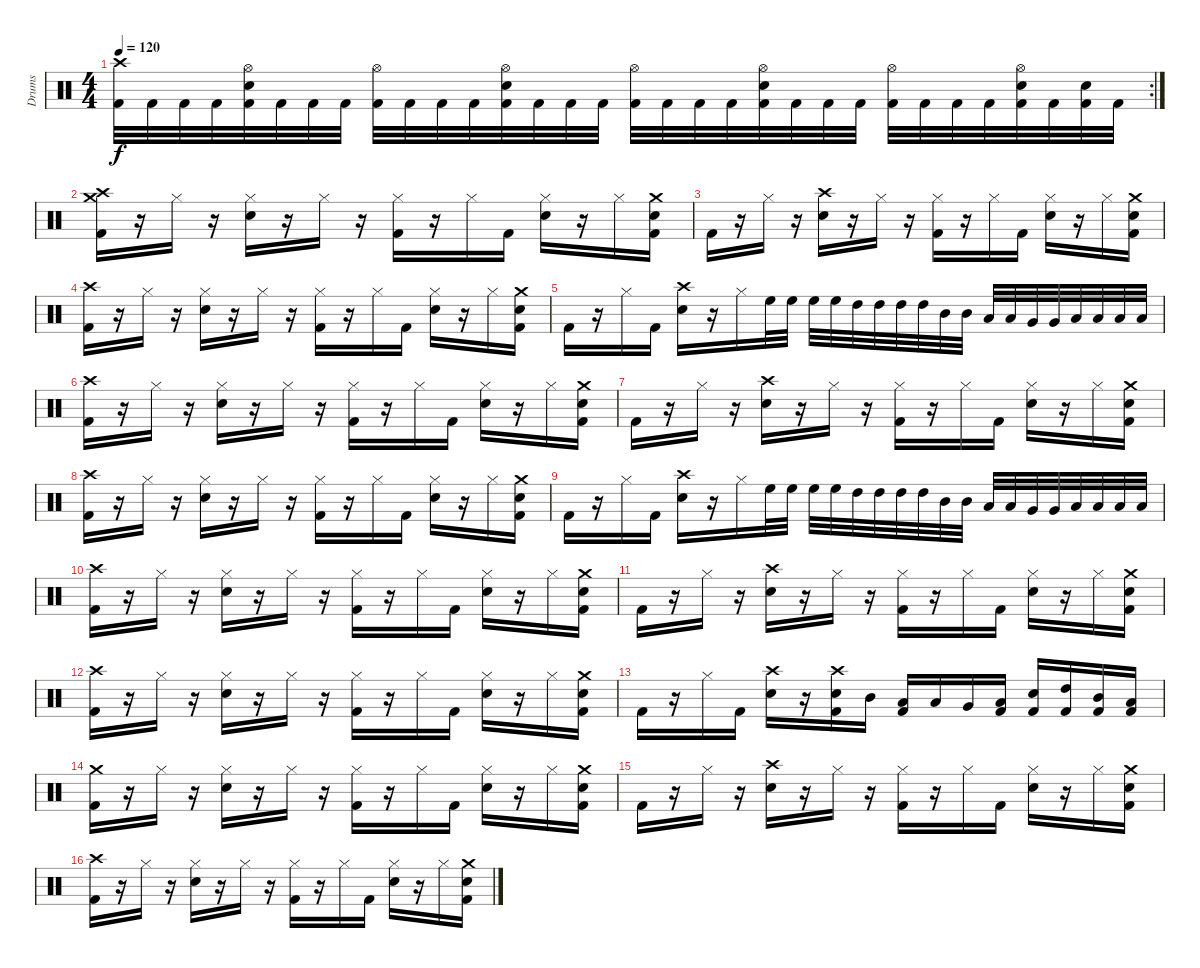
\track ("Drums" "Drums") {instrument percussion}
\staff {score}
\articulation defaults
\rc 2
\ts (4 4)
\tempo 120
\clef neutral
\ks c
("Crash high (hit)" "Kick (hit) 2").32{dy f} "Kick (hit) 2".32 "Kick (hit) 2".32 "Kick (hit) 2".32 ("Hi-Hat (open)" "Snare (hit) 2" "Kick (hit) 2").32 "Kick (hit) 2".32 "Kick (hit) 2".32 "Kick (hit) 2".32 ("Hi-Hat (open)" "Kick (hit) 2").32 "Kick (hit) 2".32 "Kick (hit) 2".32 "Kick (hit) 2".32 ("Hi-Hat (open)" "Snare (hit) 2" "Kick (hit) 2").32 "Kick (hit) 2".32 "Kick (hit) 2".32 "Kick (hit) 2".32 ("Hi-Hat (open)" "Kick (hit) 2").32 "Kick (hit) 2".32 "Kick (hit) 2".32 "Kick (hit) 2".32 ("Hi-Hat (open)" "Snare (hit) 2" "Kick (hit) 2").32 "Kick (hit) 2".32 "Kick (hit) 2".32 "Kick (hit) 2".32 ("Hi-Hat (open)" "Kick (hit) 2").32 "Kick (hit) 2".32 "Kick (hit) 2".32 "Kick (hit) 2".32 ("Hi-Hat (open)" "Snare (hit) 2" "Kick (hit) 2").32 "Kick (hit) 2".32 ("Snare (hit) 2" "Kick (hit) 2").32 "Kick (hit) 2".32 |
("Crash high (hit)" "Crash medium (hit)" "Kick (hit) 2").16 r.16 "Hi-Hat (closed)".16 r.16 ("Hi-Hat (closed)" "Snare (hit) 2").16 r.16 "Hi-Hat (closed)".16 r.16 ("Hi-Hat (closed)" "Kick (hit) 2").16 r.16 "Hi-Hat (closed)".16 "Kick (hit) 2".16 ("Hi-Hat (closed)" "Snare (hit) 2").16 r.16 "Hi-Hat (closed)".16 ("Crash medium (hit)" "Snare (hit) 2" "Kick (hit) 2").16 |
"Kick (hit) 2".16 r.16 "Hi-Hat (closed)".16 r.16 ("Crash high (hit)" "Snare (hit) 2").16 r.16 "Hi-Hat (closed)".16 r.16 ("Hi-Hat (closed)" "Kick (hit) 2").16 r.16 "Hi-Hat (closed)".16 "Kick (hit) 2".16 ("Hi-Hat (closed)" "Snare (hit) 2").16 r.16 "Hi-Hat (closed)".16 ("Crash medium (hit)" "Snare (hit) 2" "Kick (hit) 2").16 |
("Crash high (hit)" "Kick (hit) 2").16 r.16 "Hi-Hat (closed)".16 r.16 ("Hi-Hat (closed)" "Snare (hit) 2").16 r.16 "Hi-Hat (closed)".16 r.16 ("Hi-Hat (closed)" "Kick (hit) 2").16 r.16 "Hi-Hat (closed)".16 "Kick (hit) 2".16 ("Hi-Hat (closed)" "Snare (hit) 2").16 r.16 "Hi-Hat (closed)".16 ("Crash medium (hit)" "Snare (hit) 2" "Kick (hit) 2").16 |
"Kick (hit) 2".16 r.16 "Hi-Hat (closed)".16 "Kick (hit) 2".16 ("Crash high (hit)" "Snare (hit) 2").16 r.16 "Hi-Hat (closed)".16 "High Floor Tom (hit)".32 "High Floor Tom (hit)".32 "High Floor Tom (hit)".32 "High Floor Tom (hit)".32 "High Tom (hit)".32 "High Tom (hit)".32 "High Tom (hit)".32 "High Tom (hit)".32 "Mid Tom (hit)".32 "Mid Tom (hit)".32 "Low Tom (hit)".32 "Low Tom (hit)".32 "Very Low Tom (hit)".32 "Very Low Tom (hit)".32 "Low Floor Tom (hit)".32 "Low Floor Tom (hit)".32 "Low Floor Tom (hit)".32 "Low Floor Tom (hit)".32 |
("Crash high (hit)" "Kick (hit) 2").16 r.16 "Hi-Hat (closed)".16 r.16 ("Hi-Hat (closed)" "Snare (hit) 2").16 r.16 "Hi-Hat (closed)".16 r.16 ("Hi-Hat (closed)" "Kick (hit) 2").16 r.16 "Hi-Hat (closed)".16 "Kick (hit) 2".16 ("Hi-Hat (closed)" "Snare (hit) 2").16 r.16 "Hi-Hat (closed)".16 ("Crash medium (hit)" "Snare (hit) 2" "Kick (hit) 2").16 |
"Kick (hit) 2".16 r.16 "Hi-Hat (closed)".16 r.16 ("Crash high (hit)" "Snare (hit) 2").16 r.16 "Hi-Hat (closed)".16 r.16 ("Hi-Hat (closed)" "Kick (hit) 2").16 r.16 "Hi-Hat (closed)".16 "Kick (hit) 2".16 ("Hi-Hat (closed)" "Snare (hit) 2").16 r.16 "Hi-Hat (closed)".16 ("Crash medium (hit)" "Snare (hit) 2" "Kick (hit) 2").16 |
("Crash high (hit)" "Kick (hit) 2").16 r.16 "Hi-Hat (closed)".16 r.16 ("Hi-Hat (closed)" "Snare (hit) 2").16 r.16 "Hi-Hat (closed)".16 r.16 ("Hi-Hat (closed)" "Kick (hit) 2").16 r.16 "Hi-Hat (closed)".16 "Kick (hit) 2".16 ("Hi-Hat (closed)" "Snare (hit) 2").16 r.16 "Hi-Hat (closed)".16 ("Crash medium (hit)" "Snare (hit) 2" "Kick (hit) 2").16 |
"Kick (hit) 2".16 r.16 "Hi-Hat (closed)".16 "Kick (hit) 2".16 ("Crash high (hit)" "Snare (hit) 2").16 r.16 "Hi-Hat (closed)".16 "High Floor Tom (hit)".32 "High Floor Tom (hit)".32 "High Floor Tom (hit)".32 "High Floor Tom (hit)".32 "High Tom (hit)".32 "High Tom (hit)".32 "High Tom (hit)".32 "High Tom (hit)".32 "Mid Tom (hit)".32 "Mid Tom (hit)".32 "Low Tom (hit)".32 "Low Tom (hit)".32 "Very Low Tom (hit)".32 "Very Low Tom (hit)".32 "Low Floor Tom (hit)".32 "Low Floor Tom (hit)".32 "Low Floor Tom (hit)".32 "Low Floor Tom (hit)".32 |
("Crash high (hit)" "Kick (hit) 2").16 r.16 "Hi-Hat (closed)".16 r.16 ("Hi-Hat (closed)" "Snare (hit) 2").16 r.16 "Hi-Hat (closed)".16 r.16 ("Hi-Hat (closed)" "Kick (hit) 2").16 r.16 "Hi-Hat (closed)".16 "Kick (hit) 2".16 ("Hi-Hat (closed)" "Snare (hit) 2").16 r.16 "Hi-Hat (closed)".16 ("Crash medium (hit)" "Snare (hit) 2" "Kick (hit) 2").16 |
"Kick (hit) 2".16 r.16 "Hi-Hat (closed)".16 r.16 ("Crash high (hit)" "Snare (hit) 2").16 r.16 "Hi-Hat (closed)".16 r.16 ("Hi-Hat (closed)" "Kick (hit) 2").16 r.16 "Hi-Hat (closed)".16 "Kick (hit) 2".16 ("Hi-Hat (closed)" "Snare (hit) 2").16 r.16 "Hi-Hat (closed)".16 ("Crash medium (hit)" "Snare (hit) 2" "Kick (hit) 2").16 |
("Crash high (hit)" "Kick (hit) 2").16 r.16 "Hi-Hat (closed)".16 r.16 ("Hi-Hat (closed)" "Snare (hit) 2").16 r.16 "Hi-Hat (closed)".16 r.16 ("Hi-Hat (closed)" "Kick (hit) 2").16 r.16 "Hi-Hat (closed)".16 "Kick (hit) 2".16 ("Hi-Hat (closed)" "Snare (hit) 2").16 r.16 "Hi-Hat (closed)".16 ("Crash medium (hit)" "Snare (hit) 2" "Kick (hit) 2").16 |
"Kick (hit) 2".16 r.16 "Hi-Hat (closed)".16 "Kick (hit) 2".16 ("Crash high (hit)" "Snare (hit) 2").16 r.16 ("Crash high (hit)" "Snare (hit) 2" "Kick (hit) 2").16 "Mid Tom (hit)".16 ("Low Tom (hit)" "Kick (hit) 2").16 "Low Tom (hit)".16 "Very Low Tom (hit)".16 ("Low Floor Tom (hit)" "Kick (hit) 2").16 ("Snare (hit) 2" "Kick (hit) 2").16 ("High Tom (hit)" "Kick (hit) 2").16 ("Mid Tom (hit)" "Kick (hit) 2").16 ("Low Tom (hit)" "Kick (hit) 2").16 |
("Crash medium (hit)" "Kick (hit) 2").16 r.16 "Hi-Hat (closed)".16 r.16 ("Hi-Hat (closed)" "Snare (hit) 2").16 r.16 "Hi-Hat (closed)".16 r.16 ("Hi-Hat (closed)" "Kick (hit) 2").16 r.16 "Hi-Hat (closed)".16 "Kick (hit) 2".16 ("Hi-Hat (closed)" "Snare (hit) 2").16 r.16 "Hi-Hat (closed)".16 ("Crash medium (hit)" "Snare (hit) 2" "Kick (hit) 2").16 |
"Kick (hit) 2".16 r.16 "Hi-Hat (closed)".16 r.16 ("Crash high (hit)" "Snare (hit) 2").16 r.16 "Hi-Hat (closed)".16 r.16 ("Hi-Hat (closed)" "Kick (hit) 2").16 r.16 "Hi-Hat (closed)".16 "Kick (hit) 2".16 ("Hi-Hat (closed)" "Snare (hit) 2").16 r.16 "Hi-Hat (closed)".16 ("Crash medium (hit)" "Snare (hit) 2" "Kick (hit) 2").16 |
("Crash high (hit)" "Kick (hit) 2").16 r.16 "Hi-Hat (closed)".16 r.16 ("Hi-Hat (closed)" "Snare (hit) 2").16 r.16 "Hi-Hat (closed)".16 r.16 ("Hi-Hat (closed)" "Kick (hit) 2").16 r.16 "Hi-Hat (closed)".16 "Kick (hit) 2".16 ("Hi-Hat (closed)" "Snare (hit) 2").16 r.16 "Hi-Hat (closed)".16 ("Crash medium (hit)" "Snare (hit) 2" "Kick (hit) 2").16
